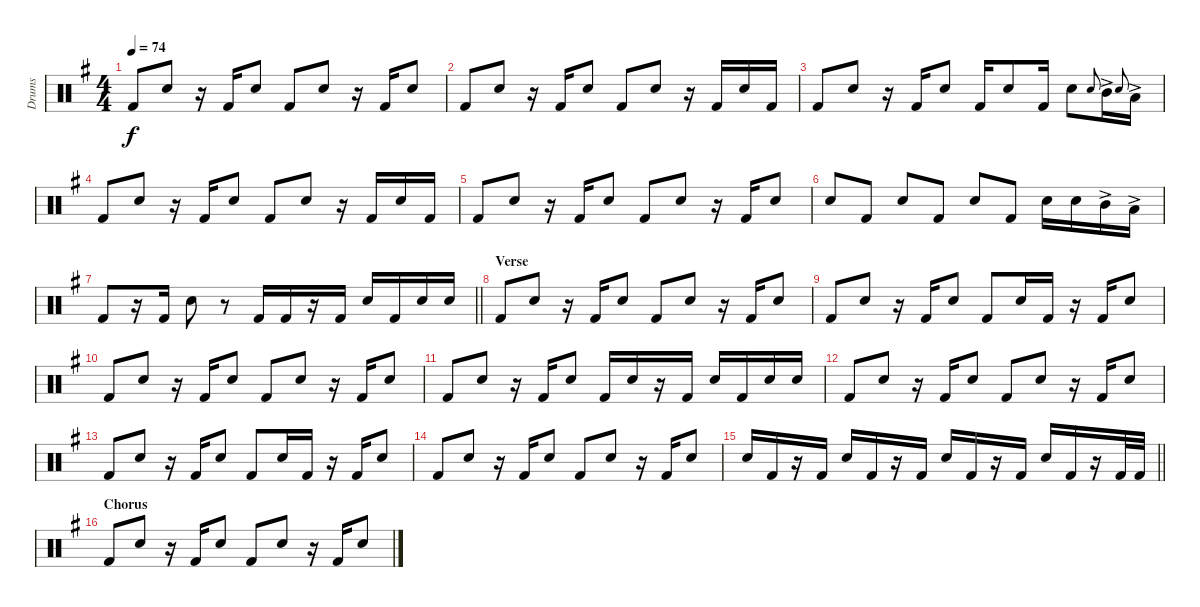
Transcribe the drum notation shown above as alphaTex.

\track ("Drums" "Drums") {instrument percussion}
\staff {score}
\articulation defaults
\ts (4 4)
\tempo 74
\clef neutral
\ks g "Kick (hit) 2".8{dy f} "Snare (hit) 2".8
r.16 "Kick (hit) 2".16 "Snare (hit) 2".8 "Kick (hit) 2".8 "Snare (hit) 2".8 r.16 "Kick (hit) 2".16 "Snare (hit) 2".8 |
"Kick (hit) 2".8 "Snare (hit) 2".8 r.16 "Kick (hit) 2".16 "Snare (hit) 2".8 "Kick (hit) 2".8 "Snare (hit) 2".8 r.16 "Kick (hit) 2".16 "Snare (hit) 2".16 "Kick (hit) 2".16 |
"Kick (hit) 2".8 "Snare (hit) 2".8 r.16 "Kick (hit) 2".16 "Snare (hit) 2".8 "Kick (hit) 2".16 "Snare (hit) 2".8 "Kick (hit) 2".16 "Snare (hit) 2".8 "Snare (hit)".8{gr onbeat} "Mid Tom (hit)"{ac}.16 "Snare (hit)".8{gr onbeat} "Low Tom (hit)"{ac}.16 |
"Kick (hit) 2".8 "Snare (hit) 2".8 r.16 "Kick (hit) 2".16 "Snare (hit) 2".8 "Kick (hit) 2".8 "Snare (hit) 2".8 r.16 "Kick (hit) 2".16 "Snare (hit) 2".16 "Kick (hit) 2".16 |
"Kick (hit) 2".8 "Snare (hit) 2".8 r.16 "Kick (hit) 2".16 "Snare (hit) 2".8 "Kick (hit) 2".8 "Snare (hit) 2".8 r.16 "Kick (hit) 2".16 "Snare (hit) 2".8 |
"Snare (hit) 2".8 "Kick (hit) 2".8 "Snare (hit) 2".8 "Kick (hit) 2".8 "Snare (hit) 2".8 "Kick (hit) 2".8 "Snare (hit) 2".16 "Snare (hit) 2".16 "Mid Tom (hit)"{ac}.16 "Low Tom (hit)"{ac}.16 |
\barLineRight lightlight "Kick (hit) 2".8
r.16 "Kick (hit) 2".16 "Snare (hit) 2".8 r.8 "Kick (hit) 2".16 "Kick (hit) 2".16 r.16 "Kick (hit) 2".16 "Snare (hit) 2".16 "Kick (hit) 2".16 "Snare (hit) 2".16 "Snare (hit) 2".16 |
\section ("" "Verse")
"Kick (hit) 2".8 "Snare (hit) 2".8 r.16 "Kick (hit) 2".16 "Snare (hit) 2".8 "Kick (hit) 2".8 "Snare (hit) 2".8 r.16 "Kick (hit) 2".16 "Snare (hit) 2".8 |
"Kick (hit) 2".8 "Snare (hit) 2".8 r.16 "Kick (hit) 2".16 "Snare (hit) 2".8 "Kick (hit) 2".8 "Snare (hit) 2".16 "Kick (hit) 2".16 r.16 "Kick (hit) 2".16 "Snare (hit) 2".8 |
"Kick (hit) 2".8 "Snare (hit) 2".8 r.16 "Kick (hit) 2".16 "Snare (hit) 2".8 "Kick (hit) 2".8 "Snare (hit) 2".8 r.16 "Kick (hit) 2".16 "Snare (hit) 2".8 |
"Kick (hit) 2".8 "Snare (hit) 2".8 r.16 "Kick (hit) 2".16 "Snare (hit) 2".8 "Kick (hit) 2".16 "Snare (hit) 2".16 r.16 "Kick (hit) 2".16 "Snare (hit) 2".16 "Kick (hit) 2".16 "Snare (hit) 2".16 "Snare (hit) 2".16 |
"Kick (hit) 2".8 "Snare (hit) 2".8 r.16 "Kick (hit) 2".16 "Snare (hit) 2".8 "Kick (hit) 2".8 "Snare (hit) 2".8 r.16 "Kick (hit) 2".16 "Snare (hit) 2".8 |
"Kick (hit) 2".8 "Snare (hit) 2".8 r.16 "Kick (hit) 2".16 "Snare (hit) 2".8 "Kick (hit) 2".8 "Snare (hit) 2".16 "Kick (hit) 2".16 r.16 "Kick (hit) 2".16 "Snare (hit) 2".8 |
"Kick (hit) 2".8 "Snare (hit) 2".8 r.16 "Kick (hit) 2".16 "Snare (hit) 2".8 "Kick (hit) 2".8 "Snare (hit) 2".8 r.16 "Kick (hit) 2".16 "Snare (hit) 2".8 |
\barLineRight lightlight "Snare (hit) 2".16 "Kick (hit) 2".16
r.16 "Kick (hit) 2".16 "Snare (hit) 2".16 "Kick (hit) 2".16 r.16 "Kick (hit) 2".16 "Snare (hit) 2".16 "Kick (hit) 2".16 r.16 "Kick (hit) 2".16 "Snare (hit) 2".16 "Kick (hit) 2".16 r.16 "Kick (hit) 2".32 "Kick (hit) 2".32 |
\section ("" "Chorus")
"Kick (hit) 2".8 "Snare (hit) 2".8 r.16 "Kick (hit) 2".16 "Snare (hit) 2".8 "Kick (hit) 2".8 "Snare (hit) 2".8 r.16 "Kick (hit) 2".16 "Snare (hit) 2".8
